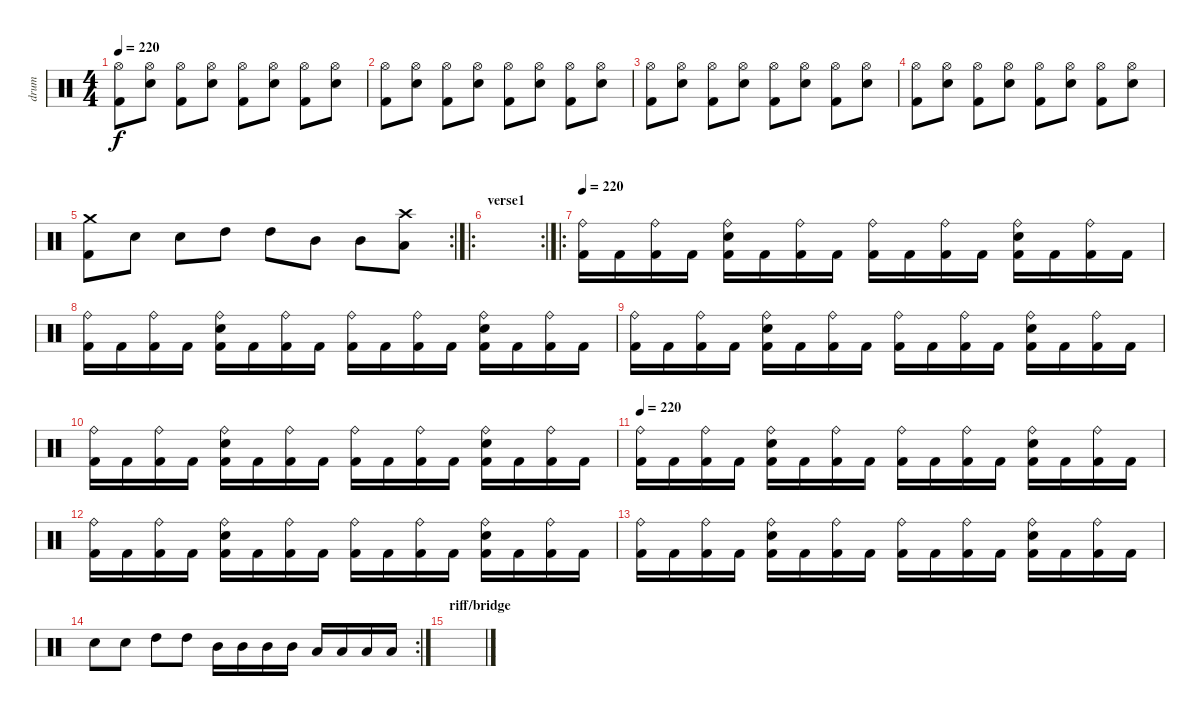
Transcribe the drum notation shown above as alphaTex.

\track ("drum" "drum") {instrument percussion}
\staff {score}
\articulation defaults
\ts (4 4)
\tempo 220
\clef neutral
\ks c
("Hi-Hat (open)" "Kick (hit) 2").8{dy f} ("Hi-Hat (open)" "Electric Snare (hit)").8 ("Hi-Hat (open)" "Kick (hit) 2").8 ("Hi-Hat (open)" "Electric Snare (hit)").8 ("Hi-Hat (open)" "Kick (hit) 2").8 ("Hi-Hat (open)" "Electric Snare (hit)").8 ("Hi-Hat (open)" "Kick (hit) 2").8 ("Hi-Hat (open)" "Electric Snare (hit)").8 |
("Hi-Hat (open)" "Kick (hit) 2").8 ("Hi-Hat (open)" "Electric Snare (hit)").8 ("Hi-Hat (open)" "Kick (hit) 2").8 ("Hi-Hat (open)" "Electric Snare (hit)").8 ("Hi-Hat (open)" "Kick (hit) 2").8 ("Hi-Hat (open)" "Electric Snare (hit)").8 ("Hi-Hat (open)" "Kick (hit) 2").8 ("Hi-Hat (open)" "Electric Snare (hit)").8 |
("Hi-Hat (open)" "Kick (hit) 2").8 ("Hi-Hat (open)" "Electric Snare (hit)").8 ("Hi-Hat (open)" "Kick (hit) 2").8 ("Hi-Hat (open)" "Electric Snare (hit)").8 ("Hi-Hat (open)" "Kick (hit) 2").8 ("Hi-Hat (open)" "Electric Snare (hit)").8 ("Hi-Hat (open)" "Kick (hit) 2").8 ("Hi-Hat (open)" "Electric Snare (hit)").8 |
("Hi-Hat (open)" "Kick (hit) 2").8 ("Hi-Hat (open)" "Electric Snare (hit)").8 ("Hi-Hat (open)" "Kick (hit) 2").8 ("Hi-Hat (open)" "Electric Snare (hit)").8 ("Hi-Hat (open)" "Kick (hit) 2").8 ("Hi-Hat (open)" "Electric Snare (hit)").8 ("Hi-Hat (open)" "Kick (hit) 2").8 ("Hi-Hat (open)" "Electric Snare (hit)").8 |
\rc 2
("Crash medium (hit)" "Kick (hit) 2").8 "Electric Snare (hit)".8 "Electric Snare (hit)".8 "High Tom (hit)".8 "High Tom (hit)".8 "Mid Tom (hit)".8 "Mid Tom (hit)".8 ("Crash high (hit)" "Low Tom (hit)").8 |
\ro
\rc 2
\section ("" "verse1")
|
\ro
\tempo 220
("Ride (bell)" "Kick (hit) 2").16 "Kick (hit) 2".16 ("Ride (bell)" "Kick (hit) 2").16 "Kick (hit) 2".16 ("Ride (bell)" "Electric Snare (hit)" "Kick (hit) 2").16 "Kick (hit) 2".16 ("Ride (bell)" "Kick (hit) 2").16 "Kick (hit) 2".16 ("Ride (bell)" "Kick (hit) 2").16 "Kick (hit) 2".16 ("Ride (bell)" "Kick (hit) 2").16 "Kick (hit) 2".16 ("Ride (bell)" "Electric Snare (hit)" "Kick (hit) 2").16 "Kick (hit) 2".16 ("Ride (bell)" "Kick (hit) 2").16 "Kick (hit) 2".16 |
("Ride (bell)" "Kick (hit) 2").16 "Kick (hit) 2".16 ("Ride (bell)" "Kick (hit) 2").16 "Kick (hit) 2".16 ("Ride (bell)" "Electric Snare (hit)" "Kick (hit) 2").16 "Kick (hit) 2".16 ("Ride (bell)" "Kick (hit) 2").16 "Kick (hit) 2".16 ("Ride (bell)" "Kick (hit) 2").16 "Kick (hit) 2".16 ("Ride (bell)" "Kick (hit) 2").16 "Kick (hit) 2".16 ("Ride (bell)" "Electric Snare (hit)" "Kick (hit) 2").16 "Kick (hit) 2".16 ("Ride (bell)" "Kick (hit) 2").16 "Kick (hit) 2".16 |
("Ride (bell)" "Kick (hit) 2").16 "Kick (hit) 2".16 ("Ride (bell)" "Kick (hit) 2").16 "Kick (hit) 2".16 ("Ride (bell)" "Electric Snare (hit)" "Kick (hit) 2").16 "Kick (hit) 2".16 ("Ride (bell)" "Kick (hit) 2").16 "Kick (hit) 2".16 ("Ride (bell)" "Kick (hit) 2").16 "Kick (hit) 2".16 ("Ride (bell)" "Kick (hit) 2").16 "Kick (hit) 2".16 ("Ride (bell)" "Electric Snare (hit)" "Kick (hit) 2").16 "Kick (hit) 2".16 ("Ride (bell)" "Kick (hit) 2").16 "Kick (hit) 2".16 |
("Ride (bell)" "Kick (hit) 2").16 "Kick (hit) 2".16 ("Ride (bell)" "Kick (hit) 2").16 "Kick (hit) 2".16 ("Ride (bell)" "Electric Snare (hit)" "Kick (hit) 2").16 "Kick (hit) 2".16 ("Ride (bell)" "Kick (hit) 2").16 "Kick (hit) 2".16 ("Ride (bell)" "Kick (hit) 2").16 "Kick (hit) 2".16 ("Ride (bell)" "Kick (hit) 2").16 "Kick (hit) 2".16 ("Ride (bell)" "Electric Snare (hit)" "Kick (hit) 2").16 "Kick (hit) 2".16 ("Ride (bell)" "Kick (hit) 2").16 "Kick (hit) 2".16 |
\tempo 220
("Ride (bell)" "Kick (hit) 2").16 "Kick (hit) 2".16 ("Ride (bell)" "Kick (hit) 2").16 "Kick (hit) 2".16 ("Ride (bell)" "Electric Snare (hit)" "Kick (hit) 2").16 "Kick (hit) 2".16 ("Ride (bell)" "Kick (hit) 2").16 "Kick (hit) 2".16 ("Ride (bell)" "Kick (hit) 2").16 "Kick (hit) 2".16 ("Ride (bell)" "Kick (hit) 2").16 "Kick (hit) 2".16 ("Ride (bell)" "Electric Snare (hit)" "Kick (hit) 2").16 "Kick (hit) 2".16 ("Ride (bell)" "Kick (hit) 2").16 "Kick (hit) 2".16 |
("Ride (bell)" "Kick (hit) 2").16 "Kick (hit) 2".16 ("Ride (bell)" "Kick (hit) 2").16 "Kick (hit) 2".16 ("Ride (bell)" "Electric Snare (hit)" "Kick (hit) 2").16 "Kick (hit) 2".16 ("Ride (bell)" "Kick (hit) 2").16 "Kick (hit) 2".16 ("Ride (bell)" "Kick (hit) 2").16 "Kick (hit) 2".16 ("Ride (bell)" "Kick (hit) 2").16 "Kick (hit) 2".16 ("Ride (bell)" "Electric Snare (hit)" "Kick (hit) 2").16 "Kick (hit) 2".16 ("Ride (bell)" "Kick (hit) 2").16 "Kick (hit) 2".16 |
("Ride (bell)" "Kick (hit) 2").16 "Kick (hit) 2".16 ("Ride (bell)" "Kick (hit) 2").16 "Kick (hit) 2".16 ("Ride (bell)" "Electric Snare (hit)" "Kick (hit) 2").16 "Kick (hit) 2".16 ("Ride (bell)" "Kick (hit) 2").16 "Kick (hit) 2".16 ("Ride (bell)" "Kick (hit) 2").16 "Kick (hit) 2".16 ("Ride (bell)" "Kick (hit) 2").16 "Kick (hit) 2".16 ("Ride (bell)" "Electric Snare (hit)" "Kick (hit) 2").16 "Kick (hit) 2".16 ("Ride (bell)" "Kick (hit) 2").16 "Kick (hit) 2".16 |
\rc 2 "Electric Snare (hit)".8 "Electric Snare (hit)".8 "High Tom (hit)".8 "High Tom (hit)".8 "Mid Tom (hit)".16 "Mid Tom (hit)".16 "Mid Tom (hit)".16 "Mid Tom (hit)".16 "Low Tom (hit)".16 "Low Tom (hit)".16 "Low Tom (hit)".16 "Low Tom (hit)".16
|
\section ("" "riff/bridge")
